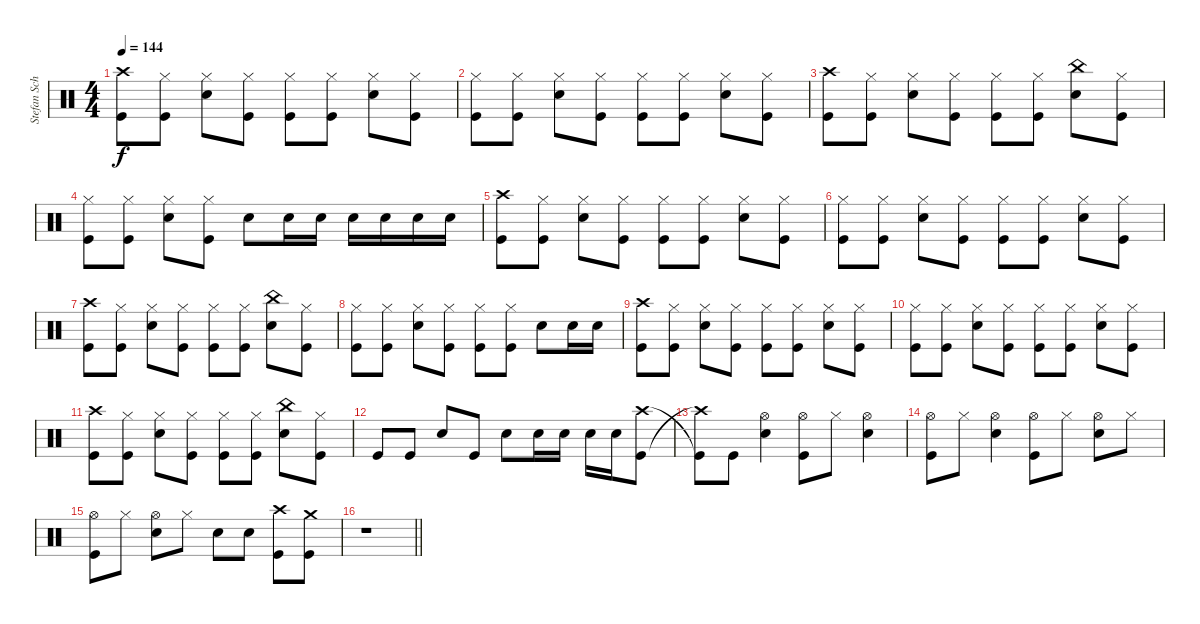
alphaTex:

\track ("Stefan Schwarzmann" "Stefan Sch") {instrument percussion}
\staff {score}
\articulation defaults
\ts (4 4)
\tempo 144
\clef neutral
\ks c
("Kick (hit)" "Crash high (hit)").8{dy f} ("Kick (hit)" "Hi-Hat (closed)").8 ("Snare (hit) 2" "Hi-Hat (closed)").8 ("Kick (hit)" "Hi-Hat (closed)").8 ("Kick (hit)" "Hi-Hat (closed)").8 ("Kick (hit)" "Hi-Hat (closed)").8 ("Snare (hit) 2" "Hi-Hat (closed)").8 ("Kick (hit)" "Hi-Hat (closed)").8 |
("Kick (hit)" "Hi-Hat (closed)").8 ("Kick (hit)" "Hi-Hat (closed)").8 ("Snare (hit) 2" "Hi-Hat (closed)").8 ("Kick (hit)" "Hi-Hat (closed)").8 ("Kick (hit)" "Hi-Hat (closed)").8 ("Kick (hit)" "Hi-Hat (closed)").8 ("Snare (hit) 2" "Hi-Hat (closed)").8 ("Kick (hit)" "Hi-Hat (closed)").8 |
("Kick (hit)" "Crash high (hit)").8 ("Kick (hit)" "Hi-Hat (closed)").8 ("Snare (hit) 2" "Hi-Hat (closed)").8 ("Kick (hit)" "Hi-Hat (closed)").8 ("Kick (hit)" "Hi-Hat (closed)").8 ("Kick (hit)" "Hi-Hat (closed)").8 ("Snare (hit) 2" "China (hit)").8 ("Kick (hit)" "Hi-Hat (closed)").8 |
("Kick (hit)" "Hi-Hat (closed)").8 ("Kick (hit)" "Hi-Hat (closed)").8 ("Snare (hit) 2" "Hi-Hat (closed)").8 ("Kick (hit)" "Hi-Hat (closed)").8 "Snare (hit) 2".8 "Snare (hit) 2".16 "Snare (hit) 2".16 "Snare (hit) 2".16 "Snare (hit) 2".16 "Snare (hit) 2".16 "Snare (hit) 2".16 |
("Kick (hit)" "Crash high (hit)").8 ("Kick (hit)" "Hi-Hat (closed)").8 ("Snare (hit) 2" "Hi-Hat (closed)").8 ("Kick (hit)" "Hi-Hat (closed)").8 ("Kick (hit)" "Hi-Hat (closed)").8 ("Kick (hit)" "Hi-Hat (closed)").8 ("Snare (hit) 2" "Hi-Hat (closed)").8 ("Kick (hit)" "Hi-Hat (closed)").8 |
("Kick (hit)" "Hi-Hat (closed)").8 ("Kick (hit)" "Hi-Hat (closed)").8 ("Snare (hit) 2" "Hi-Hat (closed)").8 ("Kick (hit)" "Hi-Hat (closed)").8 ("Kick (hit)" "Hi-Hat (closed)").8 ("Kick (hit)" "Hi-Hat (closed)").8 ("Snare (hit) 2" "Hi-Hat (closed)").8 ("Kick (hit)" "Hi-Hat (closed)").8 |
("Kick (hit)" "Crash high (hit)").8 ("Kick (hit)" "Hi-Hat (closed)").8 ("Snare (hit) 2" "Hi-Hat (closed)").8 ("Kick (hit)" "Hi-Hat (closed)").8 ("Kick (hit)" "Hi-Hat (closed)").8 ("Kick (hit)" "Hi-Hat (closed)").8 ("Snare (hit) 2" "China (hit)").8 ("Kick (hit)" "Hi-Hat (closed)").8 |
("Kick (hit)" "Hi-Hat (closed)").8 ("Kick (hit)" "Hi-Hat (closed)").8 ("Snare (hit) 2" "Hi-Hat (closed)").8 ("Kick (hit)" "Hi-Hat (closed)").8 ("Kick (hit)" "Hi-Hat (closed)").8 ("Kick (hit)" "Hi-Hat (closed)").8 "Snare (hit) 2".8 "Snare (hit) 2".16 "Snare (hit) 2".16 |
("Kick (hit)" "Crash high (hit)").8 ("Kick (hit)" "Hi-Hat (closed)").8 ("Snare (hit) 2" "Hi-Hat (closed)").8 ("Kick (hit)" "Hi-Hat (closed)").8 ("Kick (hit)" "Hi-Hat (closed)").8 ("Kick (hit)" "Hi-Hat (closed)").8 ("Snare (hit) 2" "Hi-Hat (closed)").8 ("Kick (hit)" "Hi-Hat (closed)").8 |
("Kick (hit)" "Hi-Hat (closed)").8 ("Kick (hit)" "Hi-Hat (closed)").8 ("Snare (hit) 2" "Hi-Hat (closed)").8 ("Kick (hit)" "Hi-Hat (closed)").8 ("Kick (hit)" "Hi-Hat (closed)").8 ("Kick (hit)" "Hi-Hat (closed)").8 ("Snare (hit) 2" "Hi-Hat (closed)").8 ("Kick (hit)" "Hi-Hat (closed)").8 |
("Kick (hit)" "Crash high (hit)").8 ("Kick (hit)" "Hi-Hat (closed)").8 ("Snare (hit) 2" "Hi-Hat (closed)").8 ("Kick (hit)" "Hi-Hat (closed)").8 ("Kick (hit)" "Hi-Hat (closed)").8 ("Kick (hit)" "Hi-Hat (closed)").8 ("Snare (hit) 2" "China (hit)").8 ("Kick (hit)" "Hi-Hat (closed)").8 |
"Kick (hit)".8 "Kick (hit)".8 "Snare (hit) 2".8 "Kick (hit)".8 "Snare (hit) 2".8 "Snare (hit) 2".16 "Snare (hit) 2".16 "Snare (hit) 2".16 "Snare (hit) 2".16 ("Crash high (hit)" "Kick (hit)").8 |
("Kick (hit)"{t} "Crash high (hit)"{t}).8 "Kick (hit)".8 ("Snare (hit) 2" "Hi-Hat (open)").4 ("Kick (hit)" "Hi-Hat (open)").8 "Hi-Hat (closed)".8 ("Snare (hit) 2" "Hi-Hat (open)").4 |
("Kick (hit)" "Hi-Hat (open)").8 "Hi-Hat (closed)".8 ("Snare (hit) 2" "Hi-Hat (open)").4 ("Kick (hit)" "Hi-Hat (open)").8 "Hi-Hat (closed)".8 ("Snare (hit) 2" "Hi-Hat (open)").8 "Hi-Hat (closed)".8 |
("Kick (hit)" "Hi-Hat (open)").8 "Hi-Hat (closed)".8 ("Snare (hit) 2" "Hi-Hat (open)").8 "Hi-Hat (closed)".8 "Snare (hit) 2".8 "Snare (hit) 2".8 ("Crash high (hit)" "Kick (hit)").8 ("Crash medium (hit)" "Kick (hit)").8 |
\barLineRight lightlight
r.1
